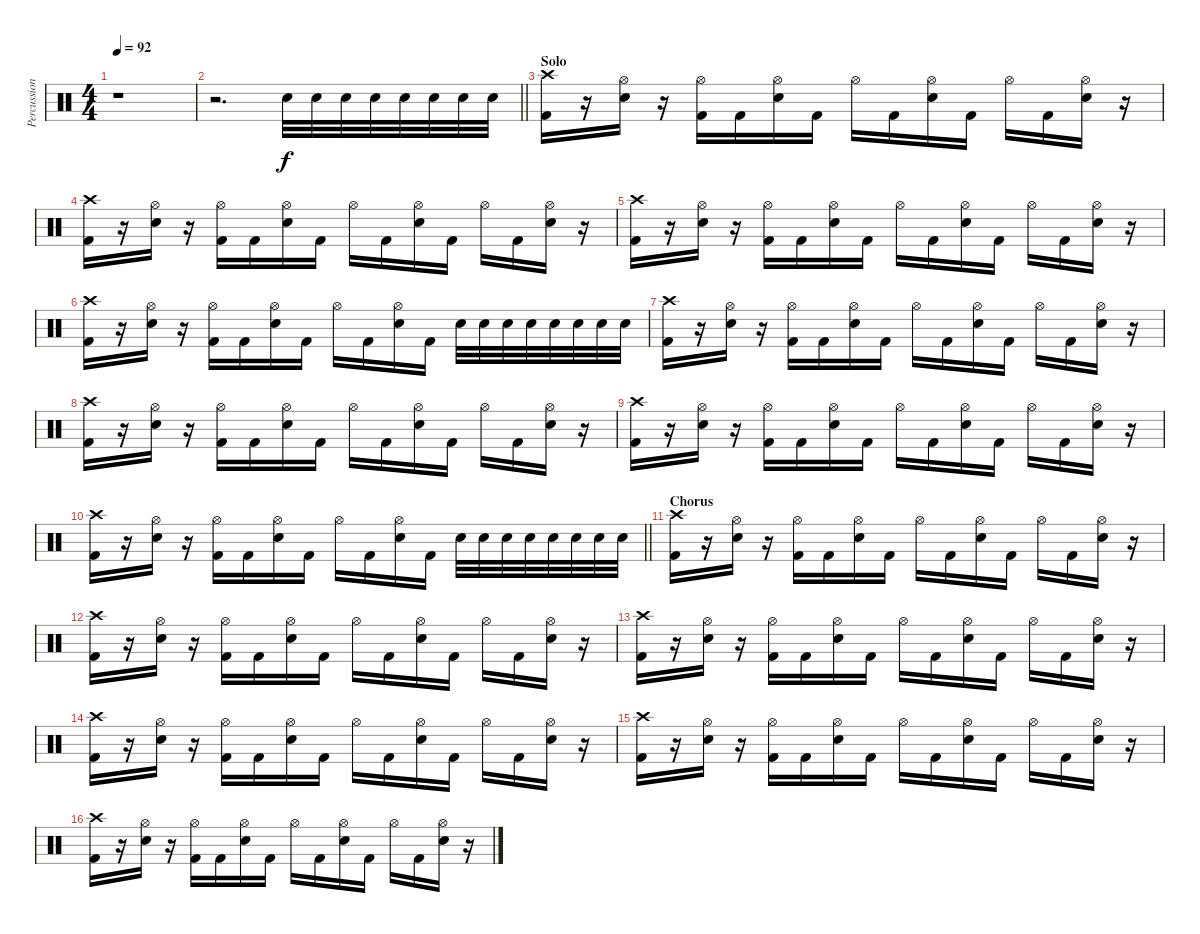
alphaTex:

\track ("Percussion" "Percussion") {instrument percussion}
\staff {score}
\articulation defaults
\ts (4 4)
\tempo 92
\clef neutral
\ks c
r.1{dy f} |
\barLineRight lightlight
r.2{d} "Electric Snare (hit)".32 "Electric Snare (hit)".32 "Electric Snare (hit)".32 "Electric Snare (hit)".32 "Electric Snare (hit)".32 "Electric Snare (hit)".32 "Electric Snare (hit)".32 "Electric Snare (hit)".32 |
\section ("" "Solo")
("Kick (hit) 2" "Crash high (hit)").16 r.16 ("Electric Snare (hit)" "Hi-Hat (open)").16 r.16 ("Kick (hit) 2" "Hi-Hat (open)").16 "Kick (hit) 2".16 ("Electric Snare (hit)" "Hi-Hat (open)").16 "Kick (hit) 2".16 "Hi-Hat (open)".16 "Kick (hit) 2".16 ("Electric Snare (hit)" "Hi-Hat (open)").16 "Kick (hit) 2".16 "Hi-Hat (open)".16 "Kick (hit) 2".16 ("Electric Snare (hit)" "Hi-Hat (open)").16 r.16 |
("Kick (hit) 2" "Crash high (hit)").16 r.16 ("Electric Snare (hit)" "Hi-Hat (open)").16 r.16 ("Kick (hit) 2" "Hi-Hat (open)").16 "Kick (hit) 2".16 ("Electric Snare (hit)" "Hi-Hat (open)").16 "Kick (hit) 2".16 "Hi-Hat (open)".16 "Kick (hit) 2".16 ("Electric Snare (hit)" "Hi-Hat (open)").16 "Kick (hit) 2".16 "Hi-Hat (open)".16 "Kick (hit) 2".16 ("Electric Snare (hit)" "Hi-Hat (open)").16 r.16 |
("Kick (hit) 2" "Crash high (hit)").16 r.16 ("Electric Snare (hit)" "Hi-Hat (open)").16 r.16 ("Kick (hit) 2" "Hi-Hat (open)").16 "Kick (hit) 2".16 ("Electric Snare (hit)" "Hi-Hat (open)").16 "Kick (hit) 2".16 "Hi-Hat (open)".16 "Kick (hit) 2".16 ("Electric Snare (hit)" "Hi-Hat (open)").16 "Kick (hit) 2".16 "Hi-Hat (open)".16 "Kick (hit) 2".16 ("Electric Snare (hit)" "Hi-Hat (open)").16 r.16 |
("Kick (hit) 2" "Crash high (hit)").16 r.16 ("Electric Snare (hit)" "Hi-Hat (open)").16 r.16 ("Kick (hit) 2" "Hi-Hat (open)").16 "Kick (hit) 2".16 ("Electric Snare (hit)" "Hi-Hat (open)").16 "Kick (hit) 2".16 "Hi-Hat (open)".16 "Kick (hit) 2".16 ("Electric Snare (hit)" "Hi-Hat (open)").16 "Kick (hit) 2".16 "Electric Snare (hit)".32 "Electric Snare (hit)".32 "Electric Snare (hit)".32 "Electric Snare (hit)".32 "Electric Snare (hit)".32 "Electric Snare (hit)".32 "Electric Snare (hit)".32 "Electric Snare (hit)".32 |
("Kick (hit) 2" "Crash high (hit)").16 r.16 ("Electric Snare (hit)" "Hi-Hat (open)").16 r.16 ("Kick (hit) 2" "Hi-Hat (open)").16 "Kick (hit) 2".16 ("Electric Snare (hit)" "Hi-Hat (open)").16 "Kick (hit) 2".16 "Hi-Hat (open)".16 "Kick (hit) 2".16 ("Electric Snare (hit)" "Hi-Hat (open)").16 "Kick (hit) 2".16 "Hi-Hat (open)".16 "Kick (hit) 2".16 ("Electric Snare (hit)" "Hi-Hat (open)").16 r.16 |
("Kick (hit) 2" "Crash high (hit)").16 r.16 ("Electric Snare (hit)" "Hi-Hat (open)").16 r.16 ("Kick (hit) 2" "Hi-Hat (open)").16 "Kick (hit) 2".16 ("Electric Snare (hit)" "Hi-Hat (open)").16 "Kick (hit) 2".16 "Hi-Hat (open)".16 "Kick (hit) 2".16 ("Electric Snare (hit)" "Hi-Hat (open)").16 "Kick (hit) 2".16 "Hi-Hat (open)".16 "Kick (hit) 2".16 ("Electric Snare (hit)" "Hi-Hat (open)").16 r.16 |
("Kick (hit) 2" "Crash high (hit)").16 r.16 ("Electric Snare (hit)" "Hi-Hat (open)").16 r.16 ("Kick (hit) 2" "Hi-Hat (open)").16 "Kick (hit) 2".16 ("Electric Snare (hit)" "Hi-Hat (open)").16 "Kick (hit) 2".16 "Hi-Hat (open)".16 "Kick (hit) 2".16 ("Electric Snare (hit)" "Hi-Hat (open)").16 "Kick (hit) 2".16 "Hi-Hat (open)".16 "Kick (hit) 2".16 ("Electric Snare (hit)" "Hi-Hat (open)").16 r.16 |
\barLineRight lightlight
("Kick (hit) 2" "Crash high (hit)").16 r.16 ("Electric Snare (hit)" "Hi-Hat (open)").16 r.16 ("Kick (hit) 2" "Hi-Hat (open)").16 "Kick (hit) 2".16 ("Electric Snare (hit)" "Hi-Hat (open)").16 "Kick (hit) 2".16 "Hi-Hat (open)".16 "Kick (hit) 2".16 ("Electric Snare (hit)" "Hi-Hat (open)").16 "Kick (hit) 2".16 "Electric Snare (hit)".32 "Electric Snare (hit)".32 "Electric Snare (hit)".32 "Electric Snare (hit)".32 "Electric Snare (hit)".32 "Electric Snare (hit)".32 "Electric Snare (hit)".32 "Electric Snare (hit)".32 |
\section ("" "Chorus")
("Kick (hit) 2" "Crash high (hit)").16 r.16 ("Electric Snare (hit)" "Hi-Hat (open)").16 r.16 ("Kick (hit) 2" "Hi-Hat (open)").16 "Kick (hit) 2".16 ("Electric Snare (hit)" "Hi-Hat (open)").16 "Kick (hit) 2".16 "Hi-Hat (open)".16 "Kick (hit) 2".16 ("Electric Snare (hit)" "Hi-Hat (open)").16 "Kick (hit) 2".16 "Hi-Hat (open)".16 "Kick (hit) 2".16 ("Electric Snare (hit)" "Hi-Hat (open)").16 r.16 |
("Kick (hit) 2" "Crash high (hit)").16 r.16 ("Electric Snare (hit)" "Hi-Hat (open)").16 r.16 ("Kick (hit) 2" "Hi-Hat (open)").16 "Kick (hit) 2".16 ("Electric Snare (hit)" "Hi-Hat (open)").16 "Kick (hit) 2".16 "Hi-Hat (open)".16 "Kick (hit) 2".16 ("Electric Snare (hit)" "Hi-Hat (open)").16 "Kick (hit) 2".16 "Hi-Hat (open)".16 "Kick (hit) 2".16 ("Electric Snare (hit)" "Hi-Hat (open)").16 r.16 |
("Kick (hit) 2" "Crash high (hit)").16 r.16 ("Electric Snare (hit)" "Hi-Hat (open)").16 r.16 ("Kick (hit) 2" "Hi-Hat (open)").16 "Kick (hit) 2".16 ("Electric Snare (hit)" "Hi-Hat (open)").16 "Kick (hit) 2".16 "Hi-Hat (open)".16 "Kick (hit) 2".16 ("Electric Snare (hit)" "Hi-Hat (open)").16 "Kick (hit) 2".16 "Hi-Hat (open)".16 "Kick (hit) 2".16 ("Electric Snare (hit)" "Hi-Hat (open)").16 r.16 |
("Kick (hit) 2" "Crash high (hit)").16 r.16 ("Electric Snare (hit)" "Hi-Hat (open)").16 r.16 ("Kick (hit) 2" "Hi-Hat (open)").16 "Kick (hit) 2".16 ("Electric Snare (hit)" "Hi-Hat (open)").16 "Kick (hit) 2".16 "Hi-Hat (open)".16 "Kick (hit) 2".16 ("Electric Snare (hit)" "Hi-Hat (open)").16 "Kick (hit) 2".16 "Hi-Hat (open)".16 "Kick (hit) 2".16 ("Electric Snare (hit)" "Hi-Hat (open)").16 r.16 |
("Kick (hit) 2" "Crash high (hit)").16 r.16 ("Electric Snare (hit)" "Hi-Hat (open)").16 r.16 ("Kick (hit) 2" "Hi-Hat (open)").16 "Kick (hit) 2".16 ("Electric Snare (hit)" "Hi-Hat (open)").16 "Kick (hit) 2".16 "Hi-Hat (open)".16 "Kick (hit) 2".16 ("Electric Snare (hit)" "Hi-Hat (open)").16 "Kick (hit) 2".16 "Hi-Hat (open)".16 "Kick (hit) 2".16 ("Electric Snare (hit)" "Hi-Hat (open)").16 r.16 |
("Kick (hit) 2" "Crash high (hit)").16 r.16 ("Electric Snare (hit)" "Hi-Hat (open)").16 r.16 ("Kick (hit) 2" "Hi-Hat (open)").16 "Kick (hit) 2".16 ("Electric Snare (hit)" "Hi-Hat (open)").16 "Kick (hit) 2".16 "Hi-Hat (open)".16 "Kick (hit) 2".16 ("Electric Snare (hit)" "Hi-Hat (open)").16 "Kick (hit) 2".16 "Hi-Hat (open)".16 "Kick (hit) 2".16 ("Electric Snare (hit)" "Hi-Hat (open)").16 r.16
